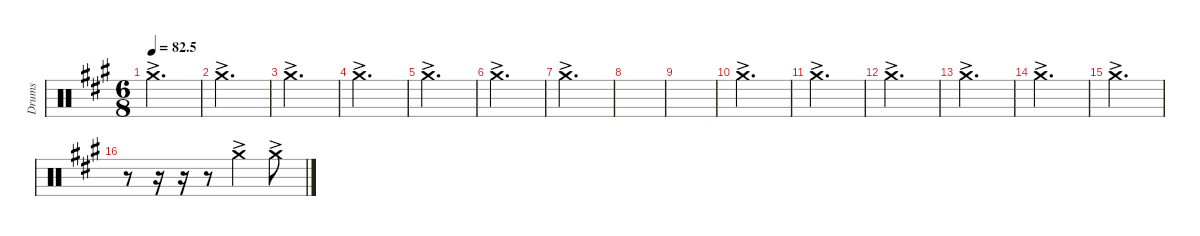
\defaultSystemsLayout 4
\hideDynamics
\bracketExtendMode nobrackets
\otherSystemsTrackNameOrientation horizontal
\track ("Right crash" "Drums") {instrument percussion}
\staff {score}
\articulation defaults
\ts (6 8)
\tempo
82.5
\accidentals auto
\clef neutral
\ottava regular
\simile none
\scale
0.333333
\ks a "Crash medium (hit)"{ac acc forcenatural}.2{d dy f}
|
\scale
0.333333 "Crash medium (hit)"{ac acc forcenatural}.2{d} |
\scale
0.333333 "Crash medium (hit)"{ac acc forcenatural}.2{d} |
\scale
0.333333 "Crash medium (hit)"{ac acc forcenatural}.2{d} |
\scale
0.333333 "Crash medium (hit)"{ac acc forcenatural}.2{d} |
\scale
0.333333 "Crash medium (hit)"{ac acc forcenatural}.2{d} |
\scale
0.333333 "Crash medium (hit)"{ac acc forcenatural}.2{d} |
\scale
0.333333 |
\scale
0.333333 |
\scale
0.333333 "Crash medium (hit)"{ac acc forcenatural}.2{d} |
\scale
0.333333 "Crash medium (hit)"{ac acc forcenatural}.2{d} |
\scale
0.333333 "Crash medium (hit)"{ac acc forcenatural}.2{d} |
\scale
0.333333 "Crash medium (hit)"{ac acc forcenatural}.2{d} |
\scale
0.333333 "Crash medium (hit)"{ac acc forcenatural}.2{d} |
\scale
0.333333 "Crash medium (hit)"{ac acc forcenatural}.2{d} |
\scale
0.333333 r.8 r.16 r.16 r.8 "Crash medium (hit)"{ac acc forcenatural}.4 "Crash medium (hit)"{ac acc forcenatural}.8
